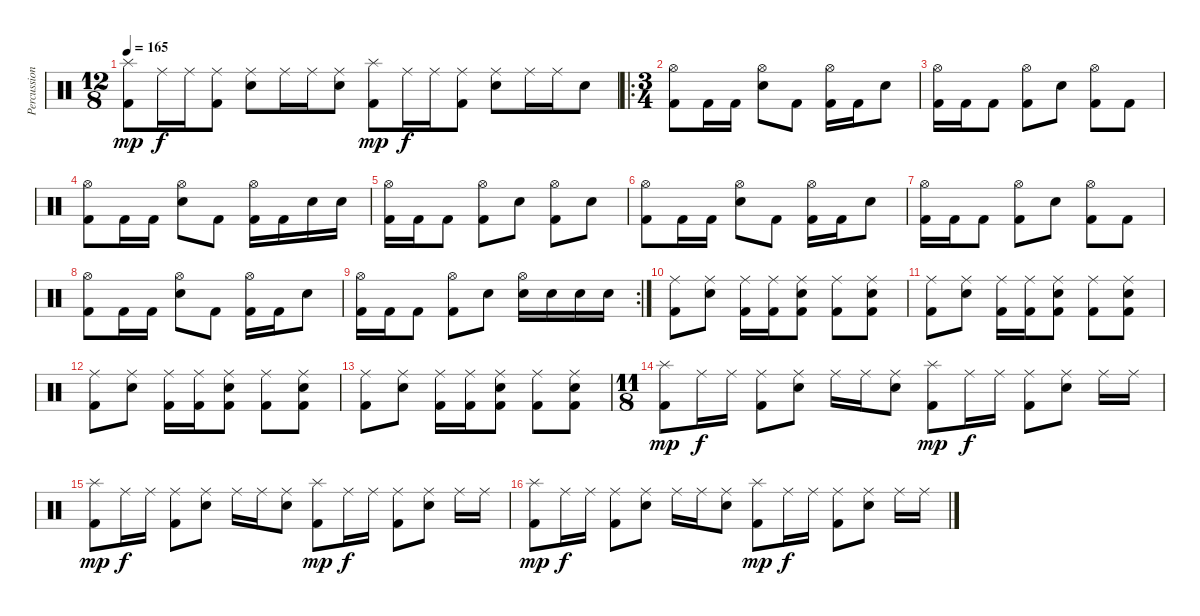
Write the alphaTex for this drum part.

\track ("Percussion" "Percussion") {instrument percussion}
\staff {score}
\articulation defaults
\ts (12 8)
\tempo 165
\clef neutral
\ks c
("Splash (hit)" "Kick (hit) 2").8{dy mp} "Ride (middle)".16{dy f} "Ride (middle)".16 ("Ride (middle)" "Kick (hit) 2").8 ("Ride (middle)" "Electric Snare (hit)").8 "Ride (middle)".16 "Ride (middle)".16 ("Ride (middle)" "Electric Snare (hit)").8 ("Splash (hit)" "Kick (hit) 2").8{dy mp} "Ride (middle)".16{dy f} "Ride (middle)".16 ("Ride (middle)" "Kick (hit) 2").8 ("Ride (middle)" "Electric Snare (hit)").8 "Ride (middle)".16 "Ride (middle)".16 "Electric Snare (hit)".8 |
\ro
\ts (3 4)
("Hi-Hat (open)" "Kick (hit) 2").8 "Kick (hit) 2".16 "Kick (hit) 2".16 ("Hi-Hat (open)" "Electric Snare (hit)").8 "Kick (hit) 2".8 ("Hi-Hat (open)" "Kick (hit) 2").16 "Kick (hit) 2".16 "Electric Snare (hit)".8 |
("Hi-Hat (open)" "Kick (hit) 2").16 "Kick (hit) 2".16 "Kick (hit) 2".8 ("Hi-Hat (open)" "Kick (hit) 2").8 "Electric Snare (hit)".8 ("Hi-Hat (open)" "Kick (hit) 2").8 "Kick (hit) 2".8 |
("Hi-Hat (open)" "Kick (hit) 2").8 "Kick (hit) 2".16 "Kick (hit) 2".16 ("Hi-Hat (open)" "Electric Snare (hit)").8 "Kick (hit) 2".8 ("Hi-Hat (open)" "Kick (hit) 2").16 "Kick (hit) 2".16 "Electric Snare (hit)".16 "Electric Snare (hit)".16 |
("Hi-Hat (open)" "Kick (hit) 2").16 "Kick (hit) 2".16 "Kick (hit) 2".8 ("Hi-Hat (open)" "Kick (hit) 2").8 "Electric Snare (hit)".8 ("Hi-Hat (open)" "Kick (hit) 2").8 "Electric Snare (hit)".8 |
("Hi-Hat (open)" "Kick (hit) 2").8 "Kick (hit) 2".16 "Kick (hit) 2".16 ("Hi-Hat (open)" "Electric Snare (hit)").8 "Kick (hit) 2".8 ("Hi-Hat (open)" "Kick (hit) 2").16 "Kick (hit) 2".16 "Electric Snare (hit)".8 |
("Hi-Hat (open)" "Kick (hit) 2").16 "Kick (hit) 2".16 "Kick (hit) 2".8 ("Hi-Hat (open)" "Kick (hit) 2").8 "Electric Snare (hit)".8 ("Hi-Hat (open)" "Kick (hit) 2").8 "Kick (hit) 2".8 |
("Hi-Hat (open)" "Kick (hit) 2").8 "Kick (hit) 2".16 "Kick (hit) 2".16 ("Hi-Hat (open)" "Electric Snare (hit)").8 "Kick (hit) 2".8 ("Hi-Hat (open)" "Kick (hit) 2").16 "Kick (hit) 2".16 "Electric Snare (hit)".8 |
\rc 2
("Hi-Hat (open)" "Kick (hit) 2").16 "Kick (hit) 2".16 "Kick (hit) 2".8 ("Hi-Hat (open)" "Kick (hit) 2").8 "Electric Snare (hit)".8 ("Hi-Hat (open)" "Electric Snare (hit)").16 "Electric Snare (hit)".16 "Electric Snare (hit)".16 "Electric Snare (hit)".16 |
("Ride (middle)" "Kick (hit) 2").8 ("Ride (middle)" "Electric Snare (hit)").8 ("Ride (middle)" "Kick (hit) 2").16 ("Ride (middle)" "Kick (hit) 2").16 ("Ride (middle)" "Electric Snare (hit)" "Kick (hit) 2").8 ("Ride (middle)" "Kick (hit) 2").8 ("Ride (middle)" "Electric Snare (hit)" "Kick (hit) 2").8 |
("Ride (middle)" "Kick (hit) 2").8 ("Ride (middle)" "Electric Snare (hit)").8 ("Ride (middle)" "Kick (hit) 2").16 ("Ride (middle)" "Kick (hit) 2").16 ("Ride (middle)" "Electric Snare (hit)" "Kick (hit) 2").8 ("Ride (middle)" "Kick (hit) 2").8 ("Ride (middle)" "Electric Snare (hit)" "Kick (hit) 2").8 |
("Ride (middle)" "Kick (hit) 2").8 ("Ride (middle)" "Electric Snare (hit)").8 ("Ride (middle)" "Kick (hit) 2").16 ("Ride (middle)" "Kick (hit) 2").16 ("Ride (middle)" "Electric Snare (hit)" "Kick (hit) 2").8 ("Ride (middle)" "Kick (hit) 2").8 ("Ride (middle)" "Electric Snare (hit)" "Kick (hit) 2").8 |
("Ride (middle)" "Kick (hit) 2").8 ("Ride (middle)" "Electric Snare (hit)").8 ("Ride (middle)" "Kick (hit) 2").16 ("Ride (middle)" "Kick (hit) 2").16 ("Ride (middle)" "Electric Snare (hit)" "Kick (hit) 2").8 ("Ride (middle)" "Kick (hit) 2").8 ("Ride (middle)" "Electric Snare (hit)" "Kick (hit) 2").8 |
\ts (11 8)
("Splash (hit)" "Kick (hit) 2").8{dy mp} "Ride (middle)".16{dy f} "Ride (middle)".16 ("Ride (middle)" "Kick (hit) 2").8 ("Ride (middle)" "Electric Snare (hit)").8 "Ride (middle)".16 "Ride (middle)".16 ("Ride (middle)" "Electric Snare (hit)").8 ("Splash (hit)" "Kick (hit) 2").8{dy mp} "Ride (middle)".16{dy f} "Ride (middle)".16 ("Ride (middle)" "Kick (hit) 2").8 ("Ride (middle)" "Electric Snare (hit)").8 "Ride (middle)".16 "Ride (middle)".16 |
("Splash (hit)" "Kick (hit) 2").8{dy mp} "Ride (middle)".16{dy f} "Ride (middle)".16 ("Ride (middle)" "Kick (hit) 2").8 ("Ride (middle)" "Electric Snare (hit)").8 "Ride (middle)".16 "Ride (middle)".16 ("Ride (middle)" "Electric Snare (hit)").8 ("Splash (hit)" "Kick (hit) 2").8{dy mp} "Ride (middle)".16{dy f} "Ride (middle)".16 ("Ride (middle)" "Kick (hit) 2").8 ("Ride (middle)" "Electric Snare (hit)").8 "Ride (middle)".16 "Ride (middle)".16 |
("Splash (hit)" "Kick (hit) 2").8{dy mp} "Ride (middle)".16{dy f} "Ride (middle)".16 ("Ride (middle)" "Kick (hit) 2").8 ("Ride (middle)" "Electric Snare (hit)").8 "Ride (middle)".16 "Ride (middle)".16 ("Ride (middle)" "Electric Snare (hit)").8 ("Splash (hit)" "Kick (hit) 2").8{dy mp} "Ride (middle)".16{dy f} "Ride (middle)".16 ("Ride (middle)" "Kick (hit) 2").8 ("Ride (middle)" "Electric Snare (hit)").8 "Ride (middle)".16 "Ride (middle)".16
